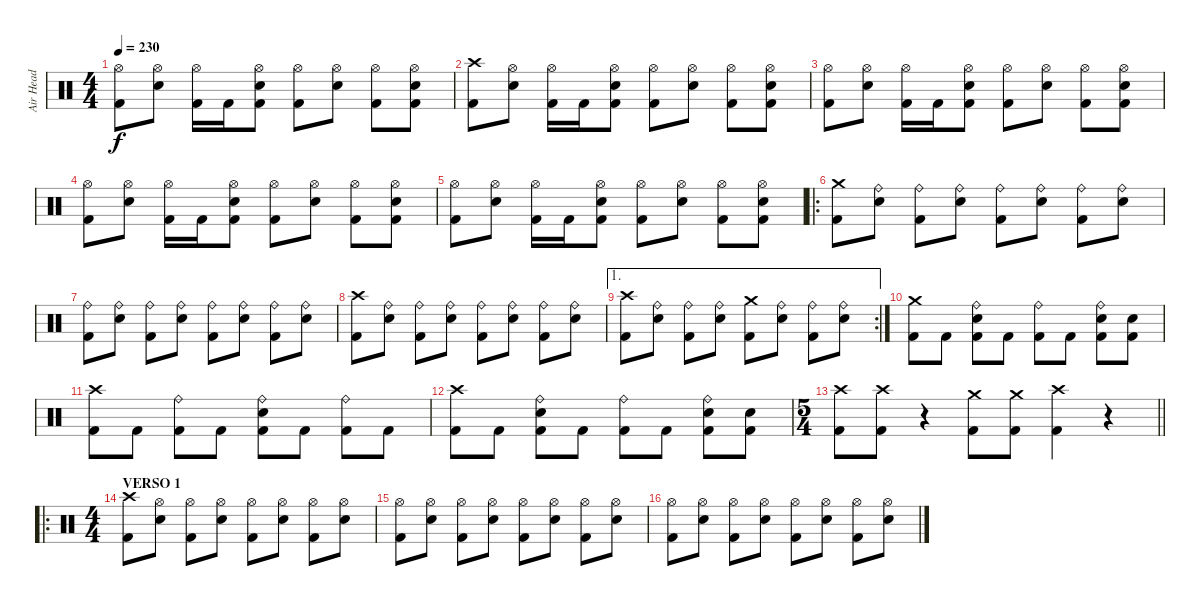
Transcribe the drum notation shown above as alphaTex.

\track ("Air Head" "Air Head") {instrument percussion}
\staff {score}
\articulation defaults
\ts (4 4)
\tempo 230
\clef neutral
\ks c
("Hi-Hat (open)" "Kick (hit) 2").8{dy f} ("Hi-Hat (open)" "Snare (hit) 2").8 ("Hi-Hat (open)" "Kick (hit) 2").16 "Kick (hit) 2".16 ("Hi-Hat (open)" "Snare (hit) 2" "Kick (hit) 2").8 ("Hi-Hat (open)" "Kick (hit) 2").8 ("Hi-Hat (open)" "Snare (hit) 2").8 ("Hi-Hat (open)" "Kick (hit) 2").8 ("Hi-Hat (open)" "Snare (hit) 2" "Kick (hit) 2").8 |
("Crash high (hit)" "Kick (hit) 2").8 ("Hi-Hat (open)" "Snare (hit) 2").8 ("Hi-Hat (open)" "Kick (hit) 2").16 "Kick (hit) 2".16 ("Hi-Hat (open)" "Snare (hit) 2" "Kick (hit) 2").8 ("Hi-Hat (open)" "Kick (hit) 2").8 ("Hi-Hat (open)" "Snare (hit) 2").8 ("Hi-Hat (open)" "Kick (hit) 2").8 ("Hi-Hat (open)" "Snare (hit) 2" "Kick (hit) 2").8 |
("Hi-Hat (open)" "Kick (hit) 2").8 ("Hi-Hat (open)" "Snare (hit) 2").8 ("Hi-Hat (open)" "Kick (hit) 2").16 "Kick (hit) 2".16 ("Hi-Hat (open)" "Snare (hit) 2" "Kick (hit) 2").8 ("Hi-Hat (open)" "Kick (hit) 2").8 ("Hi-Hat (open)" "Snare (hit) 2").8 ("Hi-Hat (open)" "Kick (hit) 2").8 ("Hi-Hat (open)" "Snare (hit) 2" "Kick (hit) 2").8 |
("Hi-Hat (open)" "Kick (hit) 2").8 ("Hi-Hat (open)" "Snare (hit) 2").8 ("Hi-Hat (open)" "Kick (hit) 2").16 "Kick (hit) 2".16 ("Hi-Hat (open)" "Snare (hit) 2" "Kick (hit) 2").8 ("Hi-Hat (open)" "Kick (hit) 2").8 ("Hi-Hat (open)" "Snare (hit) 2").8 ("Hi-Hat (open)" "Kick (hit) 2").8 ("Hi-Hat (open)" "Snare (hit) 2" "Kick (hit) 2").8 |
("Hi-Hat (open)" "Kick (hit) 2").8 ("Hi-Hat (open)" "Snare (hit) 2").8 ("Hi-Hat (open)" "Kick (hit) 2").16 "Kick (hit) 2".16 ("Hi-Hat (open)" "Snare (hit) 2" "Kick (hit) 2").8 ("Hi-Hat (open)" "Kick (hit) 2").8 ("Hi-Hat (open)" "Snare (hit) 2").8 ("Hi-Hat (open)" "Kick (hit) 2").8 ("Hi-Hat (open)" "Snare (hit) 2" "Kick (hit) 2").8 |
\ro
("Crash medium (hit)" "Kick (hit) 2").8 ("Ride (bell)" "Snare (hit) 2").8 ("Ride (bell)" "Kick (hit) 2").8 ("Ride (bell)" "Snare (hit) 2").8 ("Ride (bell)" "Kick (hit) 2").8 ("Ride (bell)" "Snare (hit) 2").8 ("Ride (bell)" "Kick (hit) 2").8 ("Ride (bell)" "Snare (hit) 2").8 |
("Ride (bell)" "Kick (hit) 2").8 ("Ride (bell)" "Snare (hit) 2").8 ("Ride (bell)" "Kick (hit) 2").8 ("Ride (bell)" "Snare (hit) 2").8 ("Ride (bell)" "Kick (hit) 2").8 ("Ride (bell)" "Snare (hit) 2").8 ("Ride (bell)" "Kick (hit) 2").8 ("Ride (bell)" "Snare (hit) 2").8 |
("Crash high (hit)" "Kick (hit) 2").8 ("Ride (bell)" "Snare (hit) 2").8 ("Ride (bell)" "Kick (hit) 2").8 ("Ride (bell)" "Snare (hit) 2").8 ("Ride (bell)" "Kick (hit) 2").8 ("Ride (bell)" "Snare (hit) 2").8 ("Ride (bell)" "Kick (hit) 2").8 ("Ride (bell)" "Snare (hit) 2").8 |
\ae 1
\rc 2
("Crash high (hit)" "Kick (hit) 2").8 ("Ride (bell)" "Snare (hit) 2").8 ("Ride (bell)" "Kick (hit) 2").8 ("Ride (bell)" "Snare (hit) 2").8 ("Crash medium (hit)" "Kick (hit) 2").8 ("Ride (bell)" "Snare (hit) 2").8 ("Ride (bell)" "Kick (hit) 2").8 ("Ride (bell)" "Snare (hit) 2").8 |
("Crash medium (hit)" "Kick (hit) 2").8 "Kick (hit) 2".8 ("Ride (bell)" "Snare (hit) 2" "Kick (hit) 2").8 "Kick (hit) 2".8 ("Ride (bell)" "Kick (hit) 2").8 "Kick (hit) 2".8 ("Ride (bell)" "Snare (hit) 2" "Kick (hit) 2").8 ("Snare (hit) 2" "Kick (hit) 2").8 |
("Crash high (hit)" "Kick (hit) 2").8 "Kick (hit) 2".8 ("Ride (bell)" "Kick (hit) 2").8 "Kick (hit) 2".8 ("Ride (bell)" "Snare (hit) 2" "Kick (hit) 2").8 "Kick (hit) 2".8 ("Ride (bell)" "Kick (hit) 2").8 "Kick (hit) 2".8 |
("Crash high (hit)" "Kick (hit) 2").8 "Kick (hit) 2".8 ("Ride (bell)" "Snare (hit) 2" "Kick (hit) 2").8 "Kick (hit) 2".8 ("Ride (bell)" "Kick (hit) 2").8 "Kick (hit) 2".8 ("Ride (bell)" "Snare (hit) 2" "Kick (hit) 2").8 ("Snare (hit) 2" "Kick (hit) 2").8 |
\ts (5 4)
\barLineRight lightlight
("Crash high (hit)" "Kick (hit) 2").8 ("Crash high (hit)" "Kick (hit) 2").8 r.4 ("Crash medium (hit)" "Kick (hit) 2").8 ("Crash medium (hit)" "Kick (hit) 2").8 ("Crash high (hit)" "Kick (hit) 2").4 r.4 |
\ro
\ts (4 4)
\section ("" "VERSO 1")
("Crash high (hit)" "Kick (hit) 2").8 ("Hi-Hat (open)" "Snare (hit) 2").8 ("Hi-Hat (open)" "Kick (hit) 2").8 ("Hi-Hat (open)" "Snare (hit) 2").8 ("Hi-Hat (open)" "Kick (hit) 2").8 ("Hi-Hat (open)" "Snare (hit) 2").8 ("Hi-Hat (open)" "Kick (hit) 2").8 ("Hi-Hat (open)" "Snare (hit) 2").8 |
("Hi-Hat (open)" "Kick (hit) 2").8 ("Hi-Hat (open)" "Snare (hit) 2").8 ("Hi-Hat (open)" "Kick (hit) 2").8 ("Hi-Hat (open)" "Snare (hit) 2").8 ("Hi-Hat (open)" "Kick (hit) 2").8 ("Hi-Hat (open)" "Snare (hit) 2").8 ("Hi-Hat (open)" "Kick (hit) 2").8 ("Hi-Hat (open)" "Snare (hit) 2").8 |
("Hi-Hat (open)" "Kick (hit) 2").8 ("Hi-Hat (open)" "Snare (hit) 2").8 ("Hi-Hat (open)" "Kick (hit) 2").8 ("Hi-Hat (open)" "Snare (hit) 2").8 ("Hi-Hat (open)" "Kick (hit) 2").8 ("Hi-Hat (open)" "Snare (hit) 2").8 ("Hi-Hat (open)" "Kick (hit) 2").8 ("Hi-Hat (open)" "Snare (hit) 2").8
